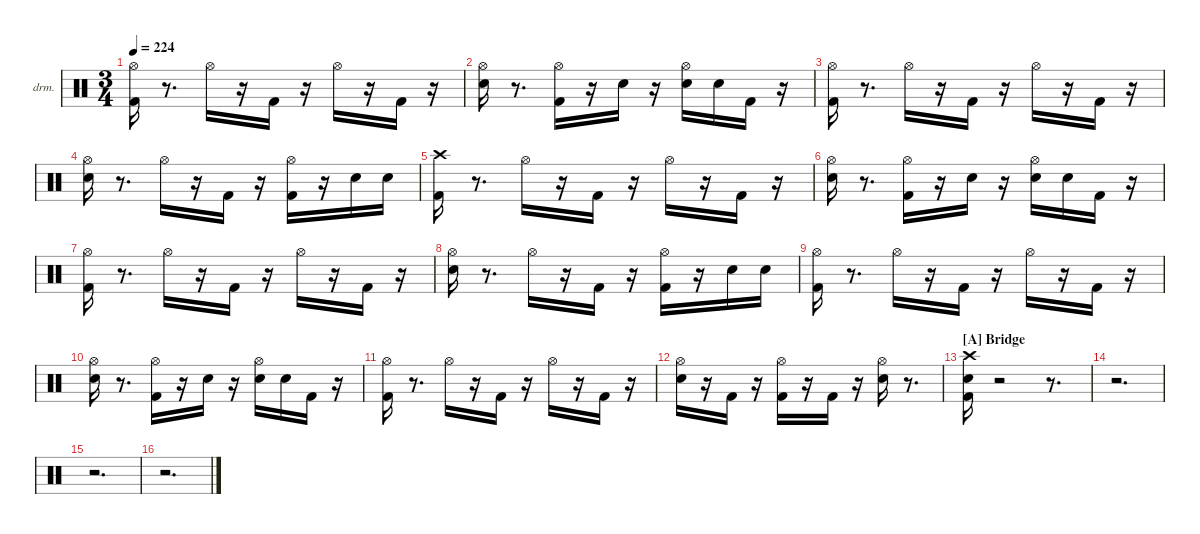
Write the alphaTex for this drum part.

\hideDynamics
\bracketExtendMode nobrackets
\firstSystemTrackNameOrientation horizontal
\otherSystemsTrackNameOrientation horizontal
\track ("Drums" "drm.") {instrument percussion}
\staff {score}
\articulation defaults
\ts (3 4)
\tempo 224
\clef neutral
\ks aminor
("Kick (hit) 2" "Hi-Hat (open)"{acc #}).16{dy fff beam Down} r.8{d beam Down} "Hi-Hat (open)"{acc #}.16{dy mp beam Down} r.16{beam Down} "Kick (hit) 2".16{dy f beam Down} r.16{beam Down} "Hi-Hat (open)"{acc #}.16{dy mf beam Down} r.16{beam Down} "Kick (hit) 2".16{dy ff beam Down} r.16{beam Down} |
("Snare (hit) 2" "Hi-Hat (open)"{acc #}).16{beam Down} r.8{d beam Down} ("Kick (hit) 2" "Hi-Hat (open)"{acc #}).16{dy mf beam Down} r.16{beam Down} "Snare (hit) 2".16{beam Down} r.16{beam Down} ("Snare (hit) 2" "Hi-Hat (open)"{acc #}).16{dy p beam Down} "Snare (hit) 2".16{dy ppp beam Down} "Kick (hit) 2".16{dy mp beam Down} r.16{beam Down} |
("Kick (hit) 2" "Hi-Hat (open)"{acc #}).16{dy fff beam Down} r.8{d beam Down} "Hi-Hat (open)"{acc #}.16{dy mp beam Down} r.16{beam Down} "Kick (hit) 2".16{dy f beam Down} r.16{beam Down} "Hi-Hat (open)"{acc #}.16{dy mf beam Down} r.16{beam Down} "Kick (hit) 2".16{dy ff beam Down} r.16{beam Down} |
("Snare (hit) 2" "Hi-Hat (open)"{acc #}).16{beam Down} r.8{d beam Down} "Hi-Hat (open)"{acc #}.16{dy f beam Down} r.16{beam Down} "Kick (hit) 2".16{dy mf beam Down} r.16{beam Down} ("Kick (hit) 2" "Hi-Hat (open)"{acc #}).16{dy fff beam Down} r.16{beam Down} "Snare (hit) 2".16{dy pp beam Down} "Snare (hit) 2".16{dy ppp beam Down} |
("Kick (hit) 2" "Crash high (hit)"{acc #}).16{dy fff beam Down} r.8{d beam Down} "Hi-Hat (open)"{acc #}.16{dy mp beam Down} r.16{beam Down} "Kick (hit) 2".16{dy f beam Down} r.16{beam Down} "Hi-Hat (open)"{acc #}.16{beam Down} r.16{beam Down} "Kick (hit) 2".16{dy ff beam Down} r.16{beam Down} |
("Snare (hit) 2" "Hi-Hat (open)"{acc #}).16{beam Down} r.8{d beam Down} ("Kick (hit) 2" "Hi-Hat (open)"{acc #}).16{dy mf beam Down} r.16{beam Down} "Snare (hit) 2".16{beam Down} r.16{beam Down} ("Snare (hit) 2" "Hi-Hat (open)"{acc #}).16{dy p beam Down} "Snare (hit) 2".16{dy ppp beam Down} "Kick (hit) 2".16{dy mp beam Down} r.16{beam Down} |
("Kick (hit) 2" "Hi-Hat (open)"{acc #}).16{dy fff beam Down} r.8{d beam Down} "Hi-Hat (open)"{acc #}.16{dy mp beam Down} r.16{beam Down} "Kick (hit) 2".16{dy f beam Down} r.16{beam Down} "Hi-Hat (open)"{acc #}.16{beam Down} r.16{beam Down} "Kick (hit) 2".16{dy ff beam Down} r.16{beam Down} |
("Snare (hit) 2" "Hi-Hat (open)"{acc #}).16{beam Down} r.8{d beam Down} "Hi-Hat (open)"{acc #}.16{dy mf beam Down} r.16{beam Down} "Kick (hit) 2".16{beam Down} r.16{beam Down} ("Kick (hit) 2" "Hi-Hat (open)"{acc #}).16{dy fff beam Down} r.16{beam Down} "Snare (hit) 2".16{dy pp beam Down} "Snare (hit) 2".16{dy ppp beam Down} |
("Kick (hit) 2" "Hi-Hat (open)"{acc #}).16{dy fff beam Down} r.8{d beam Down} "Hi-Hat (open)"{acc #}.16{dy mp beam Down} r.16{beam Down} "Kick (hit) 2".16{dy f beam Down} r.16{beam Down} "Hi-Hat (open)"{acc #}.16{dy mf beam Down} r.16{beam Down} "Kick (hit) 2".16{dy ff beam Down} r.16{beam Down} |
("Snare (hit) 2" "Hi-Hat (open)"{acc #}).16{beam Down} r.8{d beam Down} ("Kick (hit) 2" "Hi-Hat (open)"{acc #}).16{dy mf beam Down} r.16{beam Down} "Snare (hit) 2".16{beam Down} r.16{beam Down} ("Snare (hit) 2" "Hi-Hat (open)"{acc #}).16{dy p beam Down} "Snare (hit) 2".16{dy ppp beam Down} "Kick (hit) 2".16{dy mp beam Down} r.16{beam Down} |
("Kick (hit) 2" "Hi-Hat (open)"{acc #}).16{dy fff beam Down} r.8{d beam Down} "Hi-Hat (open)"{acc #}.16{dy mp beam Down} r.16{beam Down} "Kick (hit) 2".16{dy f beam Down} r.16{beam Down} "Hi-Hat (open)"{acc #}.16{dy mf beam Down} r.16{beam Down} "Kick (hit) 2".16{dy ff beam Down} r.16{beam Down} |
("Snare (hit) 2" "Hi-Hat (open)"{acc #}).16{beam Down} r.16{beam Down} "Kick (hit) 2".16{dy mp beam Down} r.16{beam Down} ("Kick (hit) 2" "Hi-Hat (open)"{acc #}).16{dy ff beam Down} r.16{beam Down} "Kick (hit) 2".16{dy p beam Down} r.16{beam Down} ("Snare (hit) 2" "Hi-Hat (open)"{acc #}).16{dy ff beam Down} r.8{d beam Down} |
\section ("A" "Bridge")
("Kick (hit) 2" "Snare (hit) 2" "Crash high (hit)"{acc #}).16{beam Down} r.2{beam Down} r.8{d beam Down} |
r.2{d beam Down} |
r.2{d beam Down} |
r.2{d beam Down}
